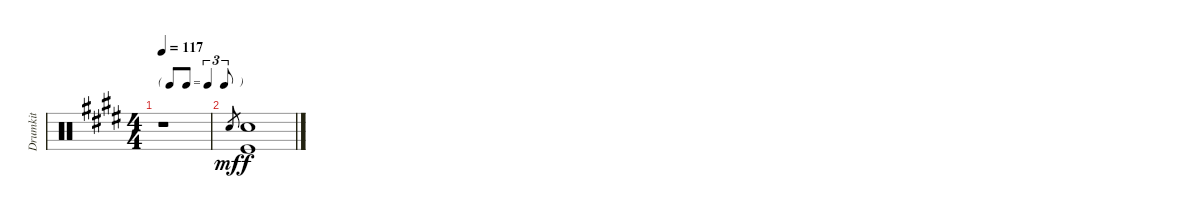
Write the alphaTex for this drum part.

\track ("Drumkit" "Drumkit") {instrument percussion}
\staff {score}
\articulation defaults
\ts (4 4)
\tf triplet8th
\tempo 117
\clef neutral
\ks e
r.1{dy f} |
"Snare (hit)".8{gr dy mf} ("Snare (hit) 2" "Kick (hit)").1{dy f}
